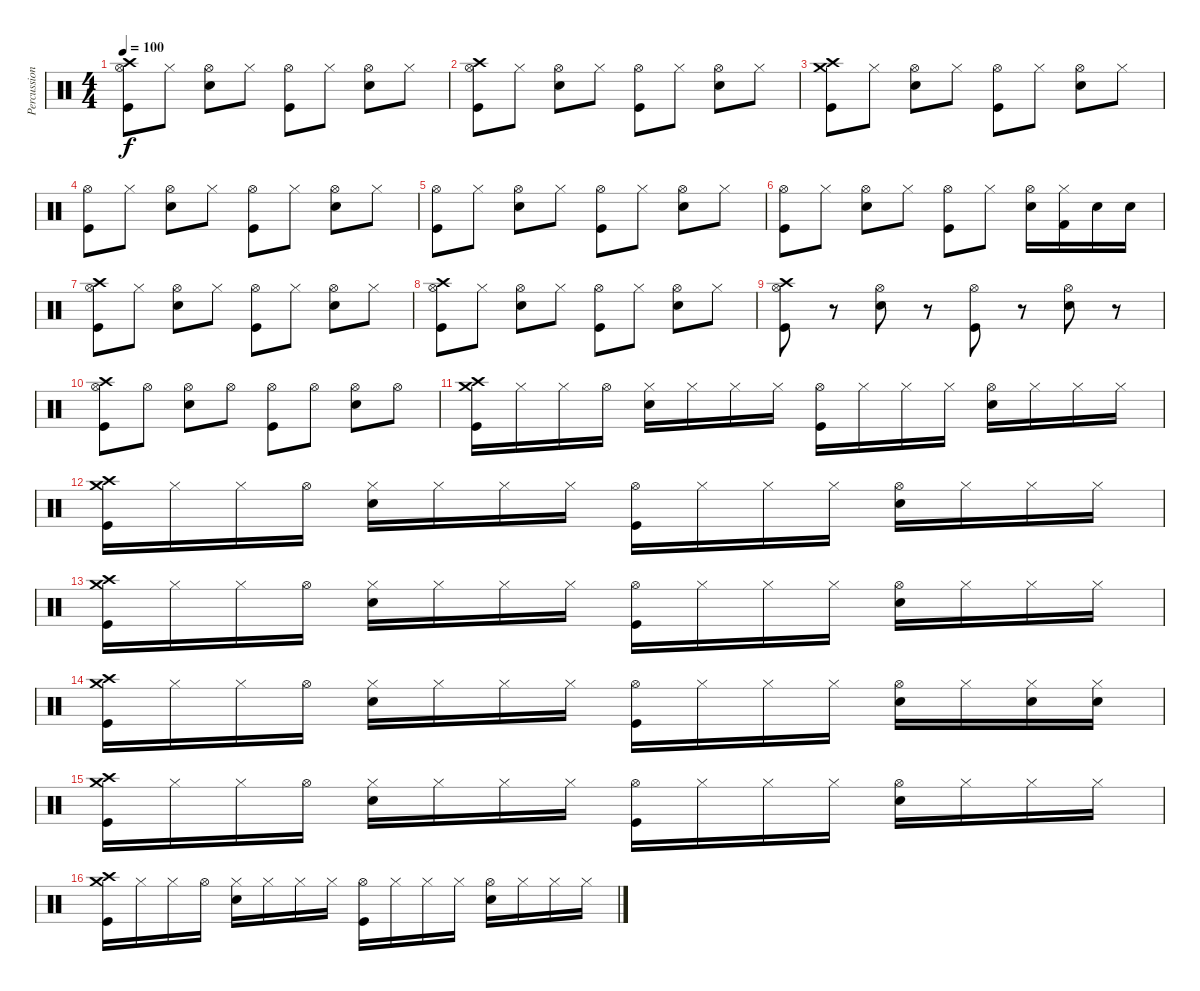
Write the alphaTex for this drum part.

\track ("Percussions" "Percussion") {instrument percussion}
\staff {score}
\articulation defaults
\ts (4 4)
\tempo 100
\clef neutral
\ks c
("Hi-Hat (open)" "Kick (hit)" "Crash high (hit)").8{dy f} "Hi-Hat (closed)".8 ("Hi-Hat (open)" "Snare (hit) 2").8 "Hi-Hat (closed)".8 ("Hi-Hat (open)" "Kick (hit)").8 "Hi-Hat (closed)".8 ("Hi-Hat (open)" "Snare (hit) 2").8 "Hi-Hat (closed)".8 |
("Hi-Hat (open)" "Kick (hit)" "Crash high (hit)").8 "Hi-Hat (closed)".8 ("Hi-Hat (open)" "Snare (hit) 2").8 "Hi-Hat (closed)".8 ("Hi-Hat (open)" "Kick (hit)").8 "Hi-Hat (closed)".8 ("Hi-Hat (open)" "Snare (hit) 2").8 "Hi-Hat (closed)".8 |
("Crash high (hit)" "Crash medium (hit)" "Kick (hit)").8 "Hi-Hat (closed)".8 ("Hi-Hat (open)" "Snare (hit) 2").8 "Hi-Hat (closed)".8 ("Hi-Hat (open)" "Kick (hit)").8 "Hi-Hat (closed)".8 ("Hi-Hat (open)" "Snare (hit) 2").8 "Hi-Hat (closed)".8 |
("Hi-Hat (open)" "Kick (hit)").8 "Hi-Hat (closed)".8 ("Hi-Hat (open)" "Snare (hit) 2").8 "Hi-Hat (closed)".8 ("Hi-Hat (open)" "Kick (hit)").8 "Hi-Hat (closed)".8 ("Hi-Hat (open)" "Snare (hit) 2").8 "Hi-Hat (closed)".8 |
("Hi-Hat (open)" "Kick (hit)").8 "Hi-Hat (closed)".8 ("Hi-Hat (open)" "Snare (hit) 2").8 "Hi-Hat (closed)".8 ("Hi-Hat (open)" "Kick (hit)").8 "Hi-Hat (closed)".8 ("Hi-Hat (open)" "Snare (hit) 2").8 "Hi-Hat (closed)".8 |
("Hi-Hat (open)" "Kick (hit)").8 "Hi-Hat (closed)".8 ("Hi-Hat (open)" "Snare (hit) 2").8 "Hi-Hat (closed)".8 ("Hi-Hat (open)" "Kick (hit)").8 "Hi-Hat (closed)".8 ("Hi-Hat (open)" "Snare (hit) 2").16 ("Hi-Hat (closed)" "Kick (hit) 2").16 "Snare (hit) 2".16 "Snare (hit) 2".16 |
("Hi-Hat (open)" "Kick (hit)" "Crash high (hit)").8 "Hi-Hat (closed)".8 ("Hi-Hat (open)" "Snare (hit) 2").8 "Hi-Hat (closed)".8 ("Hi-Hat (open)" "Kick (hit)").8 "Hi-Hat (closed)".8 ("Hi-Hat (open)" "Snare (hit) 2").8 "Hi-Hat (closed)".8 |
("Hi-Hat (open)" "Kick (hit)" "Crash high (hit)").8 "Hi-Hat (closed)".8 ("Hi-Hat (open)" "Snare (hit) 2").8 "Hi-Hat (closed)".8 ("Hi-Hat (open)" "Kick (hit)").8 "Hi-Hat (closed)".8 ("Hi-Hat (open)" "Snare (hit) 2").8 "Hi-Hat (closed)".8 |
("Hi-Hat (open)" "Kick (hit)" "Crash high (hit)").8 r.8 ("Hi-Hat (open)" "Snare (hit) 2").8 r.8 ("Hi-Hat (open)" "Kick (hit)").8 r.8 ("Hi-Hat (open)" "Snare (hit) 2").8 r.8 |
("Hi-Hat (open)" "Kick (hit)" "Crash high (hit)").8 "Hi-Hat (open)".8 ("Hi-Hat (open)" "Snare (hit) 2").8 "Hi-Hat (open)".8 ("Hi-Hat (open)" "Kick (hit)").8 "Hi-Hat (open)".8 ("Hi-Hat (open)" "Snare (hit) 2").8 "Hi-Hat (open)".8 |
("Crash high (hit)" "Kick (hit)" "Crash medium (hit)").16 "Hi-Hat (closed)".16 "Hi-Hat (closed)".16 "Hi-Hat (open)".16 ("Hi-Hat (closed)" "Snare (hit) 2").16 "Hi-Hat (closed)".16 "Hi-Hat (closed)".16 "Hi-Hat (closed)".16 ("Hi-Hat (open)" "Kick (hit)").16 "Hi-Hat (closed)".16 "Hi-Hat (closed)".16 "Hi-Hat (closed)".16 ("Hi-Hat (open)" "Snare (hit) 2").16 "Hi-Hat (closed)".16 "Hi-Hat (closed)".16 "Hi-Hat (closed)".16 |
("Crash medium (hit)" "Crash high (hit)" "Kick (hit)").16 "Hi-Hat (closed)".16 "Hi-Hat (closed)".16 "Hi-Hat (open)".16 ("Hi-Hat (closed)" "Snare (hit) 2").16 "Hi-Hat (closed)".16 "Hi-Hat (closed)".16 "Hi-Hat (closed)".16 ("Hi-Hat (open)" "Kick (hit)").16 "Hi-Hat (closed)".16 "Hi-Hat (closed)".16 "Hi-Hat (closed)".16 ("Hi-Hat (open)" "Snare (hit) 2").16 "Hi-Hat (closed)".16 "Hi-Hat (closed)".16 "Hi-Hat (closed)".16 |
("Crash high (hit)" "Crash medium (hit)" "Kick (hit)").16 "Hi-Hat (closed)".16 "Hi-Hat (closed)".16 "Hi-Hat (open)".16 ("Hi-Hat (closed)" "Snare (hit) 2").16 "Hi-Hat (closed)".16 "Hi-Hat (closed)".16 "Hi-Hat (closed)".16 ("Hi-Hat (open)" "Kick (hit)").16 "Hi-Hat (closed)".16 "Hi-Hat (closed)".16 "Hi-Hat (closed)".16 ("Hi-Hat (open)" "Snare (hit) 2").16 "Hi-Hat (closed)".16 "Hi-Hat (closed)".16 "Hi-Hat (closed)".16 |
("Crash high (hit)" "Crash medium (hit)" "Kick (hit)").16 "Hi-Hat (closed)".16 "Hi-Hat (closed)".16 "Hi-Hat (open)".16 ("Hi-Hat (closed)" "Snare (hit) 2").16 "Hi-Hat (closed)".16 "Hi-Hat (closed)".16 "Hi-Hat (closed)".16 ("Hi-Hat (open)" "Kick (hit)").16 "Hi-Hat (closed)".16 "Hi-Hat (closed)".16 "Hi-Hat (closed)".16 ("Hi-Hat (open)" "Snare (hit) 2").16 "Hi-Hat (closed)".16 ("Hi-Hat (closed)" "Snare (hit) 2").16 ("Hi-Hat (closed)" "Snare (hit) 2").16 |
("Crash medium (hit)" "Crash high (hit)" "Kick (hit)").16 "Hi-Hat (closed)".16 "Hi-Hat (closed)".16 "Hi-Hat (open)".16 ("Hi-Hat (closed)" "Snare (hit) 2").16 "Hi-Hat (closed)".16 "Hi-Hat (closed)".16 "Hi-Hat (closed)".16 ("Hi-Hat (open)" "Kick (hit)").16 "Hi-Hat (closed)".16 "Hi-Hat (closed)".16 "Hi-Hat (closed)".16 ("Hi-Hat (open)" "Snare (hit) 2").16 "Hi-Hat (closed)".16 "Hi-Hat (closed)".16 "Hi-Hat (closed)".16 |
("Crash high (hit)" "Crash medium (hit)" "Kick (hit)").16 "Hi-Hat (closed)".16 "Hi-Hat (closed)".16 "Hi-Hat (open)".16 ("Hi-Hat (closed)" "Snare (hit) 2").16 "Hi-Hat (closed)".16 "Hi-Hat (closed)".16 "Hi-Hat (closed)".16 ("Hi-Hat (open)" "Kick (hit)").16 "Hi-Hat (closed)".16 "Hi-Hat (closed)".16 "Hi-Hat (closed)".16 ("Hi-Hat (open)" "Snare (hit) 2").16 "Hi-Hat (closed)".16 "Hi-Hat (closed)".16 "Hi-Hat (closed)".16
